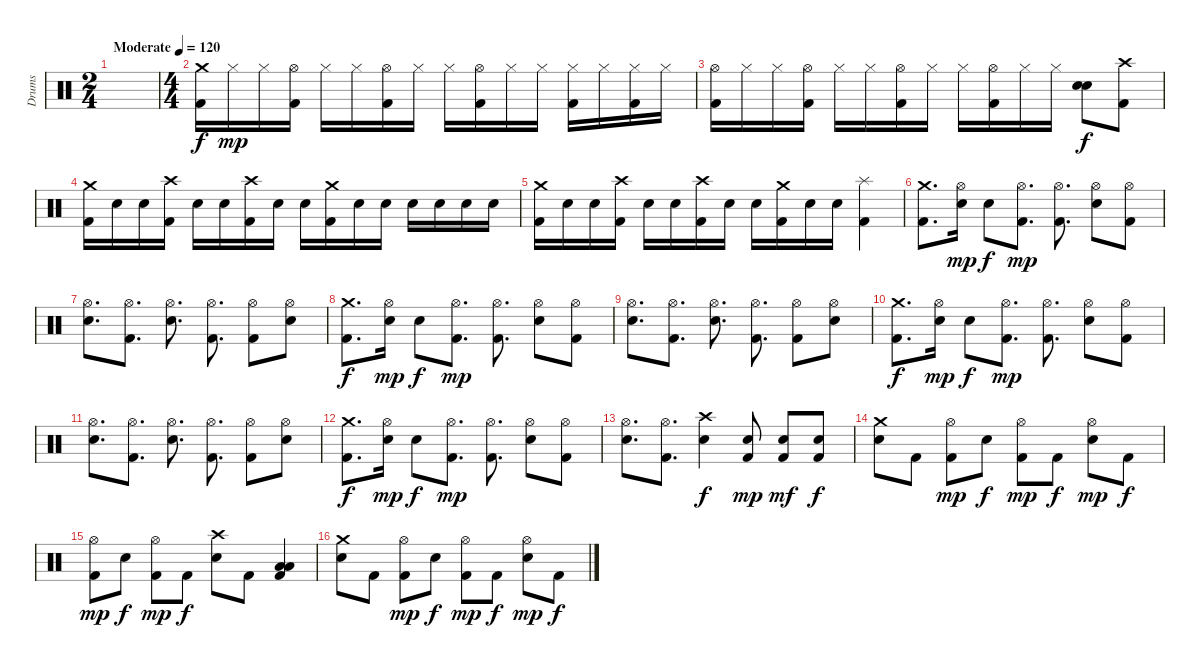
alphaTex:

\track ("Drums" "Drums") {instrument percussion}
\staff {score}
\articulation defaults
\ts (2 4)
\tempo (120 "Moderate")
\clef neutral
\ks c
|
\ts (4 4)
("Crash medium (hit)" "Kick (hit) 2").16 "Hi-Hat (closed)".16{dy mp} "Hi-Hat (closed)".16 ("Hi-Hat (open)" "Kick (hit) 2").16 "Hi-Hat (closed)".16 "Hi-Hat (closed)".16 ("Hi-Hat (open)" "Kick (hit) 2").16 "Hi-Hat (closed)".16 "Hi-Hat (closed)".16 ("Hi-Hat (open)" "Kick (hit) 2").16 "Hi-Hat (closed)".16 "Hi-Hat (closed)".16 ("Hi-Hat (closed)" "Kick (hit) 2").16 "Hi-Hat (closed)".16 ("Hi-Hat (closed)" "Kick (hit) 2").16 "Hi-Hat (closed)".16 |
("Hi-Hat (open)" "Kick (hit) 2").16 "Hi-Hat (closed)".16 "Hi-Hat (closed)".16 ("Hi-Hat (open)" "Kick (hit) 2").16 "Hi-Hat (closed)".16 "Hi-Hat (closed)".16 ("Hi-Hat (open)" "Kick (hit) 2").16 "Hi-Hat (closed)".16 "Hi-Hat (closed)".16 ("Hi-Hat (open)" "Kick (hit) 2").16 "Hi-Hat (closed)".16 "Hi-Hat (closed)".16 ("Snare (hit) 2" "Snare (hit) 2").8{bu 60 dy f} ("Crash high (hit)" "Kick (hit) 2").8 |
("Crash medium (hit)" "Kick (hit) 2").16 "Snare (hit) 2".16 "Snare (hit) 2".16 ("Crash high (hit)" "Kick (hit) 2").16 "Snare (hit) 2".16 "Snare (hit) 2".16 ("Crash high (hit)" "Kick (hit) 2").16 "Snare (hit) 2".16 "Snare (hit) 2".16 ("Crash medium (hit)" "Kick (hit) 2").16 "Snare (hit) 2".16 "Snare (hit) 2".16 "Snare (hit) 2".16 "Snare (hit) 2".16 "Snare (hit) 2".16 "Snare (hit) 2".16 |
("Crash medium (hit)" "Kick (hit) 2").16 "Snare (hit) 2".16 "Snare (hit) 2".16 ("Crash high (hit)" "Kick (hit) 2").16 "Snare (hit) 2".16 "Snare (hit) 2".16 ("Crash high (hit)" "Kick (hit) 2").16 "Snare (hit) 2".16 "Snare (hit) 2".16 ("Crash medium (hit)" "Kick (hit) 2").16 "Snare (hit) 2".16 "Snare (hit) 2".16 ("Splash (hit)" "Kick (hit) 2").4 |
("Crash medium (hit)" "Kick (hit) 2").8{d} ("Hi-Hat (open)" "Snare (hit) 2").16{dy mp} "Snare (hit) 2".8{dy f} ("Hi-Hat (open)" "Kick (hit) 2").8{d dy mp} ("Hi-Hat (open)" "Kick (hit) 2").8{d} ("Hi-Hat (open)" "Snare (hit) 2").8 ("Hi-Hat (open)" "Kick (hit) 2").8 |
("Hi-Hat (open)" "Snare (hit) 2").8{d} ("Hi-Hat (open)" "Kick (hit) 2").8{d} ("Hi-Hat (open)" "Snare (hit) 2").8{d} ("Hi-Hat (open)" "Kick (hit) 2").8{d} ("Hi-Hat (open)" "Kick (hit) 2").8 ("Hi-Hat (open)" "Snare (hit) 2").8 |
("Crash medium (hit)" "Kick (hit) 2").8{d dy f} ("Hi-Hat (open)" "Snare (hit) 2").16{dy mp} "Snare (hit) 2".8{dy f} ("Hi-Hat (open)" "Kick (hit) 2").8{d dy mp} ("Hi-Hat (open)" "Kick (hit) 2").8{d} ("Hi-Hat (open)" "Snare (hit) 2").8 ("Hi-Hat (open)" "Kick (hit) 2").8 |
("Hi-Hat (open)" "Snare (hit) 2").8{d} ("Hi-Hat (open)" "Kick (hit) 2").8{d} ("Hi-Hat (open)" "Snare (hit) 2").8{d} ("Hi-Hat (open)" "Kick (hit) 2").8{d} ("Hi-Hat (open)" "Kick (hit) 2").8 ("Hi-Hat (open)" "Snare (hit) 2").8 |
("Crash medium (hit)" "Kick (hit) 2").8{d dy f} ("Hi-Hat (open)" "Snare (hit) 2").16{dy mp} "Snare (hit) 2".8{dy f} ("Hi-Hat (open)" "Kick (hit) 2").8{d dy mp} ("Hi-Hat (open)" "Kick (hit) 2").8{d} ("Hi-Hat (open)" "Snare (hit) 2").8 ("Hi-Hat (open)" "Kick (hit) 2").8 |
("Hi-Hat (open)" "Snare (hit) 2").8{d} ("Hi-Hat (open)" "Kick (hit) 2").8{d} ("Hi-Hat (open)" "Snare (hit) 2").8{d} ("Hi-Hat (open)" "Kick (hit) 2").8{d} ("Hi-Hat (open)" "Kick (hit) 2").8 ("Hi-Hat (open)" "Snare (hit) 2").8 |
("Crash medium (hit)" "Kick (hit) 2").8{d dy f} ("Hi-Hat (open)" "Snare (hit) 2").16{dy mp} "Snare (hit) 2".8{dy f} ("Hi-Hat (open)" "Kick (hit) 2").8{d dy mp} ("Hi-Hat (open)" "Kick (hit) 2").8{d} ("Hi-Hat (open)" "Snare (hit) 2").8 ("Hi-Hat (open)" "Kick (hit) 2").8 |
("Hi-Hat (open)" "Snare (hit) 2").8{d} ("Hi-Hat (open)" "Kick (hit) 2").8{d} ("Crash high (hit)" "Snare (hit) 2").4{dy f} ("Snare (hit) 2" "Kick (hit) 2").8{dy mp} ("Snare (hit) 2" "Kick (hit) 2").8{dy mf} ("Snare (hit) 2" "Kick (hit) 2").8{dy f} |
("Crash medium (hit)" "Snare (hit) 2").8 "Kick (hit) 2".8 ("Hi-Hat (open)" "Kick (hit) 2").8{dy mp} "Snare (hit) 2".8{dy f} ("Hi-Hat (open)" "Kick (hit) 2").8{dy mp} "Kick (hit) 2".8{dy f} ("Hi-Hat (open)" "Snare (hit) 2").8{dy mp} "Kick (hit) 2".8{dy f} |
("Hi-Hat (open)" "Kick (hit) 2").8{dy mp} "Snare (hit) 2".8{dy f} ("Hi-Hat (open)" "Kick (hit) 2").8{dy mp} "Kick (hit) 2".8{dy f} ("Crash high (hit)" "Snare (hit) 2").8 "Kick (hit) 2".8 ("Low Floor Tom (hit)" "Low Floor Tom (hit)" "Kick (hit) 2").4 |
("Crash medium (hit)" "Snare (hit) 2").8 "Kick (hit) 2".8 ("Hi-Hat (open)" "Kick (hit) 2").8{dy mp} "Snare (hit) 2".8{dy f} ("Hi-Hat (open)" "Kick (hit) 2").8{dy mp} "Kick (hit) 2".8{dy f} ("Hi-Hat (open)" "Snare (hit) 2").8{dy mp} "Kick (hit) 2".8{dy f}
